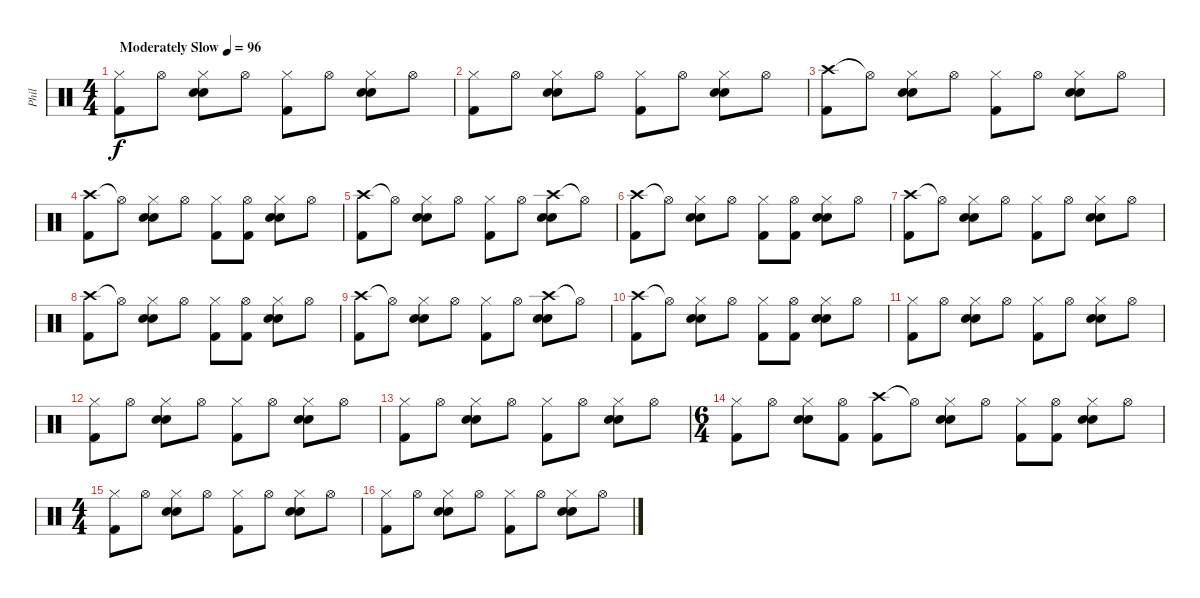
\track ("Phil" "Phil") {instrument percussion}
\staff {score}
\articulation defaults
\ts (4 4)
\tempo (96 "Moderately Slow")
\clef neutral
\ks c
("Hi-Hat (closed)" "Kick (hit) 2").8{dy f} "Hi-Hat (open)".8 ("Hi-Hat (closed)" "Snare (hit) 2" "Electric Snare (hit)").8 "Hi-Hat (open)".8 ("Hi-Hat (closed)" "Kick (hit) 2").8 "Hi-Hat (open)".8 ("Hi-Hat (closed)" "Snare (hit) 2" "Electric Snare (hit)").8 "Hi-Hat (open)".8 |
("Hi-Hat (closed)" "Kick (hit) 2").8 "Hi-Hat (open)".8 ("Hi-Hat (closed)" "Snare (hit) 2" "Electric Snare (hit)").8 "Hi-Hat (open)".8 ("Hi-Hat (closed)" "Kick (hit) 2").8 "Hi-Hat (open)".8 ("Hi-Hat (closed)" "Snare (hit) 2" "Electric Snare (hit)").8 "Hi-Hat (open)".8 |
("Crash high (hit)" "Kick (hit) 2").8 "Hi-Hat (open)"{t}.8 ("Hi-Hat (closed)" "Snare (hit) 2" "Electric Snare (hit)").8 "Hi-Hat (open)".8 ("Hi-Hat (closed)" "Kick (hit) 2").8 "Hi-Hat (open)".8 ("Hi-Hat (closed)" "Snare (hit) 2" "Electric Snare (hit)").8 "Hi-Hat (open)".8 |
("Crash high (hit)" "Kick (hit) 2").8 "Hi-Hat (open)"{t}.8 ("Hi-Hat (closed)" "Snare (hit) 2" "Electric Snare (hit)").8 "Hi-Hat (open)".8 ("Hi-Hat (closed)" "Kick (hit) 2").8 ("Hi-Hat (open)" "Kick (hit) 2").8 ("Hi-Hat (closed)" "Snare (hit) 2" "Electric Snare (hit)").8 "Hi-Hat (open)".8 |
("Crash high (hit)" "Kick (hit) 2").8 "Hi-Hat (open)"{t}.8 ("Hi-Hat (closed)" "Snare (hit) 2" "Electric Snare (hit)").8 "Hi-Hat (open)".8 ("Hi-Hat (closed)" "Kick (hit) 2").8 "Hi-Hat (open)".8 ("Crash high (hit)" "Snare (hit) 2" "Electric Snare (hit)").8 "Hi-Hat (open)"{t}.8 |
("Crash high (hit)" "Kick (hit) 2").8 "Hi-Hat (open)"{t}.8 ("Hi-Hat (closed)" "Snare (hit) 2" "Electric Snare (hit)").8 "Hi-Hat (open)".8 ("Hi-Hat (closed)" "Kick (hit) 2").8 ("Hi-Hat (open)" "Kick (hit) 2").8 ("Hi-Hat (closed)" "Snare (hit) 2" "Electric Snare (hit)").8 "Hi-Hat (open)".8 |
("Crash high (hit)" "Kick (hit) 2").8 "Hi-Hat (open)"{t}.8 ("Hi-Hat (closed)" "Snare (hit) 2" "Electric Snare (hit)").8 "Hi-Hat (open)".8 ("Hi-Hat (closed)" "Kick (hit) 2").8 "Hi-Hat (open)".8 ("Hi-Hat (closed)" "Snare (hit) 2" "Electric Snare (hit)").8 "Hi-Hat (open)".8 |
("Crash high (hit)" "Kick (hit) 2").8 "Hi-Hat (open)"{t}.8 ("Hi-Hat (closed)" "Snare (hit) 2" "Electric Snare (hit)").8 "Hi-Hat (open)".8 ("Hi-Hat (closed)" "Kick (hit) 2").8 ("Hi-Hat (open)" "Kick (hit) 2").8 ("Hi-Hat (closed)" "Snare (hit) 2" "Electric Snare (hit)").8 "Hi-Hat (open)".8 |
("Crash high (hit)" "Kick (hit) 2").8 "Hi-Hat (open)"{t}.8 ("Hi-Hat (closed)" "Snare (hit) 2" "Electric Snare (hit)").8 "Hi-Hat (open)".8 ("Hi-Hat (closed)" "Kick (hit) 2").8 "Hi-Hat (open)".8 ("Crash high (hit)" "Snare (hit) 2" "Electric Snare (hit)").8 "Hi-Hat (open)"{t}.8 |
("Crash high (hit)" "Kick (hit) 2").8 "Hi-Hat (open)"{t}.8 ("Hi-Hat (closed)" "Snare (hit) 2" "Electric Snare (hit)").8 "Hi-Hat (open)".8 ("Hi-Hat (closed)" "Kick (hit) 2").8 ("Hi-Hat (open)" "Kick (hit) 2").8 ("Hi-Hat (closed)" "Snare (hit) 2" "Electric Snare (hit)").8 "Hi-Hat (open)".8 |
("Hi-Hat (closed)" "Kick (hit) 2").8 "Hi-Hat (open)".8 ("Hi-Hat (closed)" "Snare (hit) 2" "Electric Snare (hit)").8 "Hi-Hat (open)".8 ("Hi-Hat (closed)" "Kick (hit) 2").8 "Hi-Hat (open)".8 ("Hi-Hat (closed)" "Snare (hit) 2" "Electric Snare (hit)").8 "Hi-Hat (open)".8 |
("Hi-Hat (closed)" "Kick (hit) 2").8 "Hi-Hat (open)".8 ("Hi-Hat (closed)" "Snare (hit) 2" "Electric Snare (hit)").8 "Hi-Hat (open)".8 ("Hi-Hat (closed)" "Kick (hit) 2").8 "Hi-Hat (open)".8 ("Hi-Hat (closed)" "Snare (hit) 2" "Electric Snare (hit)").8 "Hi-Hat (open)".8 |
("Hi-Hat (closed)" "Kick (hit) 2").8 "Hi-Hat (open)".8 ("Hi-Hat (closed)" "Snare (hit) 2" "Electric Snare (hit)").8 "Hi-Hat (open)".8 ("Hi-Hat (closed)" "Kick (hit) 2").8 "Hi-Hat (open)".8 ("Hi-Hat (closed)" "Snare (hit) 2" "Electric Snare (hit)").8 "Hi-Hat (open)".8 |
\ts (6 4)
("Hi-Hat (closed)" "Kick (hit) 2").8 "Hi-Hat (open)".8 ("Hi-Hat (closed)" "Snare (hit) 2" "Electric Snare (hit)").8 ("Hi-Hat (open)" "Kick (hit) 2").8 ("Crash high (hit)" "Kick (hit) 2").8 "Hi-Hat (open)"{t}.8 ("Hi-Hat (closed)" "Snare (hit) 2" "Electric Snare (hit)").8 "Hi-Hat (open)".8 ("Hi-Hat (closed)" "Kick (hit) 2").8 ("Hi-Hat (open)" "Kick (hit) 2").8 ("Hi-Hat (closed)" "Snare (hit) 2" "Electric Snare (hit)").8 "Hi-Hat (open)".8 |
\ts (4 4)
("Hi-Hat (closed)" "Kick (hit) 2").8 "Hi-Hat (open)".8 ("Hi-Hat (closed)" "Snare (hit) 2" "Electric Snare (hit)").8 "Hi-Hat (open)".8 ("Hi-Hat (closed)" "Kick (hit) 2").8 "Hi-Hat (open)".8 ("Hi-Hat (closed)" "Snare (hit) 2" "Electric Snare (hit)").8 "Hi-Hat (open)".8 |
("Hi-Hat (closed)" "Kick (hit) 2").8 "Hi-Hat (open)".8 ("Hi-Hat (closed)" "Snare (hit) 2" "Electric Snare (hit)").8 "Hi-Hat (open)".8 ("Hi-Hat (closed)" "Kick (hit) 2").8 "Hi-Hat (open)".8 ("Hi-Hat (closed)" "Snare (hit) 2" "Electric Snare (hit)").8 "Hi-Hat (open)".8
